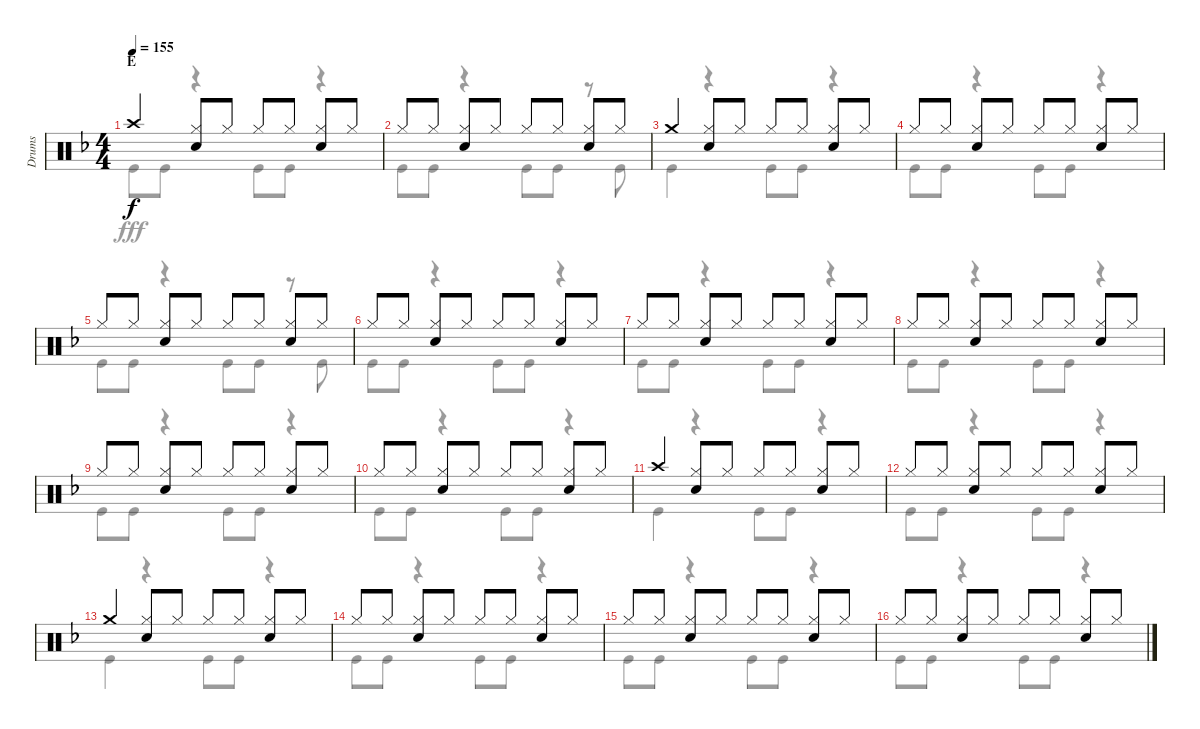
\track ("Drums" "Drums") {instrument percussion}
\staff {score}
\articulation defaults
\voice
\ts (4 4)
\section ("" "E")
\tempo 155
\clef neutral
\ks f "Crash high (hit)".4{dy f}
("Hi-Hat (closed)" "Snare (hit) 2").8 "Hi-Hat (closed)".8 "Hi-Hat (closed)".8 "Hi-Hat (closed)".8 ("Hi-Hat (closed)" "Snare (hit) 2").8 "Hi-Hat (closed)".8 |
"Hi-Hat (closed)".8 "Hi-Hat (closed)".8 ("Hi-Hat (closed)" "Snare (hit) 2").8 "Hi-Hat (closed)".8 "Hi-Hat (closed)".8 "Hi-Hat (closed)".8 ("Hi-Hat (closed)" "Snare (hit) 2").8 "Hi-Hat (closed)".8 |
"Crash medium (hit)".4 ("Hi-Hat (closed)" "Snare (hit) 2").8 "Hi-Hat (closed)".8 "Hi-Hat (closed)".8 "Hi-Hat (closed)".8 ("Hi-Hat (closed)" "Snare (hit) 2").8 "Hi-Hat (closed)".8 |
"Hi-Hat (closed)".8 "Hi-Hat (closed)".8 ("Hi-Hat (closed)" "Snare (hit) 2").8 "Hi-Hat (closed)".8 "Hi-Hat (closed)".8 "Hi-Hat (closed)".8 ("Hi-Hat (closed)" "Snare (hit) 2").8 "Hi-Hat (closed)".8 |
"Hi-Hat (closed)".8 "Hi-Hat (closed)".8 ("Hi-Hat (closed)" "Snare (hit) 2").8 "Hi-Hat (closed)".8 "Hi-Hat (closed)".8 "Hi-Hat (closed)".8 ("Hi-Hat (closed)" "Snare (hit) 2").8 "Hi-Hat (closed)".8 |
"Hi-Hat (closed)".8 "Hi-Hat (closed)".8 ("Hi-Hat (closed)" "Snare (hit) 2").8 "Hi-Hat (closed)".8 "Hi-Hat (closed)".8 "Hi-Hat (closed)".8 ("Hi-Hat (closed)" "Snare (hit) 2").8 "Hi-Hat (closed)".8 |
"Hi-Hat (closed)".8 "Hi-Hat (closed)".8 ("Hi-Hat (closed)" "Snare (hit) 2").8 "Hi-Hat (closed)".8 "Hi-Hat (closed)".8 "Hi-Hat (closed)".8 ("Hi-Hat (closed)" "Snare (hit) 2").8 "Hi-Hat (closed)".8 |
"Hi-Hat (closed)".8 "Hi-Hat (closed)".8 ("Hi-Hat (closed)" "Snare (hit) 2").8 "Hi-Hat (closed)".8 "Hi-Hat (closed)".8 "Hi-Hat (closed)".8 ("Hi-Hat (closed)" "Snare (hit) 2").8 "Hi-Hat (closed)".8 |
"Hi-Hat (closed)".8 "Hi-Hat (closed)".8 ("Hi-Hat (closed)" "Snare (hit) 2").8 "Hi-Hat (closed)".8 "Hi-Hat (closed)".8 "Hi-Hat (closed)".8 ("Hi-Hat (closed)" "Snare (hit) 2").8 "Hi-Hat (closed)".8 |
"Hi-Hat (closed)".8 "Hi-Hat (closed)".8 ("Hi-Hat (closed)" "Snare (hit) 2").8 "Hi-Hat (closed)".8 "Hi-Hat (closed)".8 "Hi-Hat (closed)".8 ("Hi-Hat (closed)" "Snare (hit) 2").8 "Hi-Hat (closed)".8 |
"Crash high (hit)".4 ("Hi-Hat (closed)" "Snare (hit) 2").8 "Hi-Hat (closed)".8 "Hi-Hat (closed)".8 "Hi-Hat (closed)".8 ("Hi-Hat (closed)" "Snare (hit) 2").8 "Hi-Hat (closed)".8 |
"Hi-Hat (closed)".8 "Hi-Hat (closed)".8 ("Hi-Hat (closed)" "Snare (hit) 2").8 "Hi-Hat (closed)".8 "Hi-Hat (closed)".8 "Hi-Hat (closed)".8 ("Hi-Hat (closed)" "Snare (hit) 2").8 "Hi-Hat (closed)".8 |
"Crash medium (hit)".4 ("Hi-Hat (closed)" "Snare (hit) 2").8 "Hi-Hat (closed)".8 "Hi-Hat (closed)".8 "Hi-Hat (closed)".8 ("Hi-Hat (closed)" "Snare (hit) 2").8 "Hi-Hat (closed)".8 |
"Hi-Hat (closed)".8 "Hi-Hat (closed)".8 ("Hi-Hat (closed)" "Snare (hit) 2").8 "Hi-Hat (closed)".8 "Hi-Hat (closed)".8 "Hi-Hat (closed)".8 ("Hi-Hat (closed)" "Snare (hit) 2").8 "Hi-Hat (closed)".8 |
"Hi-Hat (closed)".8 "Hi-Hat (closed)".8 ("Hi-Hat (closed)" "Snare (hit) 2").8 "Hi-Hat (closed)".8 "Hi-Hat (closed)".8 "Hi-Hat (closed)".8 ("Hi-Hat (closed)" "Snare (hit) 2").8 "Hi-Hat (closed)".8 |
"Hi-Hat (closed)".8 "Hi-Hat (closed)".8 ("Hi-Hat (closed)" "Snare (hit) 2").8 "Hi-Hat (closed)".8 "Hi-Hat (closed)".8 "Hi-Hat (closed)".8 ("Hi-Hat (closed)" "Snare (hit) 2").8 "Hi-Hat (closed)".8
\voice
\clef neutral
\ottava regular
\simile none
\ks f "Kick (hit)".8{dy fff} "Kick (hit)".8
r.4 "Kick (hit)".8 "Kick (hit)".8 r.4 |
"Kick (hit)".8 "Kick (hit)".8 r.4 "Kick (hit)".8 "Kick (hit)".8 r.8 "Kick (hit)".8 |
"Kick (hit)".4 r.4 "Kick (hit)".8 "Kick (hit)".8 r.4 |
"Kick (hit)".8 "Kick (hit)".8 r.4 "Kick (hit)".8 "Kick (hit)".8 r.4 |
"Kick (hit)".8 "Kick (hit)".8 r.4 "Kick (hit)".8 "Kick (hit)".8 r.8 "Kick (hit)".8 |
"Kick (hit)".8 "Kick (hit)".8 r.4 "Kick (hit)".8 "Kick (hit)".8 r.4 |
"Kick (hit)".8 "Kick (hit)".8 r.4 "Kick (hit)".8 "Kick (hit)".8 r.4 |
"Kick (hit)".8 "Kick (hit)".8 r.4 "Kick (hit)".8 "Kick (hit)".8 r.4 |
"Kick (hit)".8 "Kick (hit)".8 r.4 "Kick (hit)".8 "Kick (hit)".8 r.4 |
"Kick (hit)".8 "Kick (hit)".8 r.4 "Kick (hit)".8 "Kick (hit)".8 r.4 |
"Kick (hit)".4 r.4 "Kick (hit)".8 "Kick (hit)".8 r.4 |
"Kick (hit)".8 "Kick (hit)".8 r.4 "Kick (hit)".8 "Kick (hit)".8 r.4 |
"Kick (hit)".4 r.4 "Kick (hit)".8 "Kick (hit)".8 r.4 |
"Kick (hit)".8 "Kick (hit)".8 r.4 "Kick (hit)".8 "Kick (hit)".8 r.4 |
"Kick (hit)".8 "Kick (hit)".8 r.4 "Kick (hit)".8 "Kick (hit)".8 r.4 |
"Kick (hit)".8 "Kick (hit)".8 r.4 "Kick (hit)".8 "Kick (hit)".8 r.4
